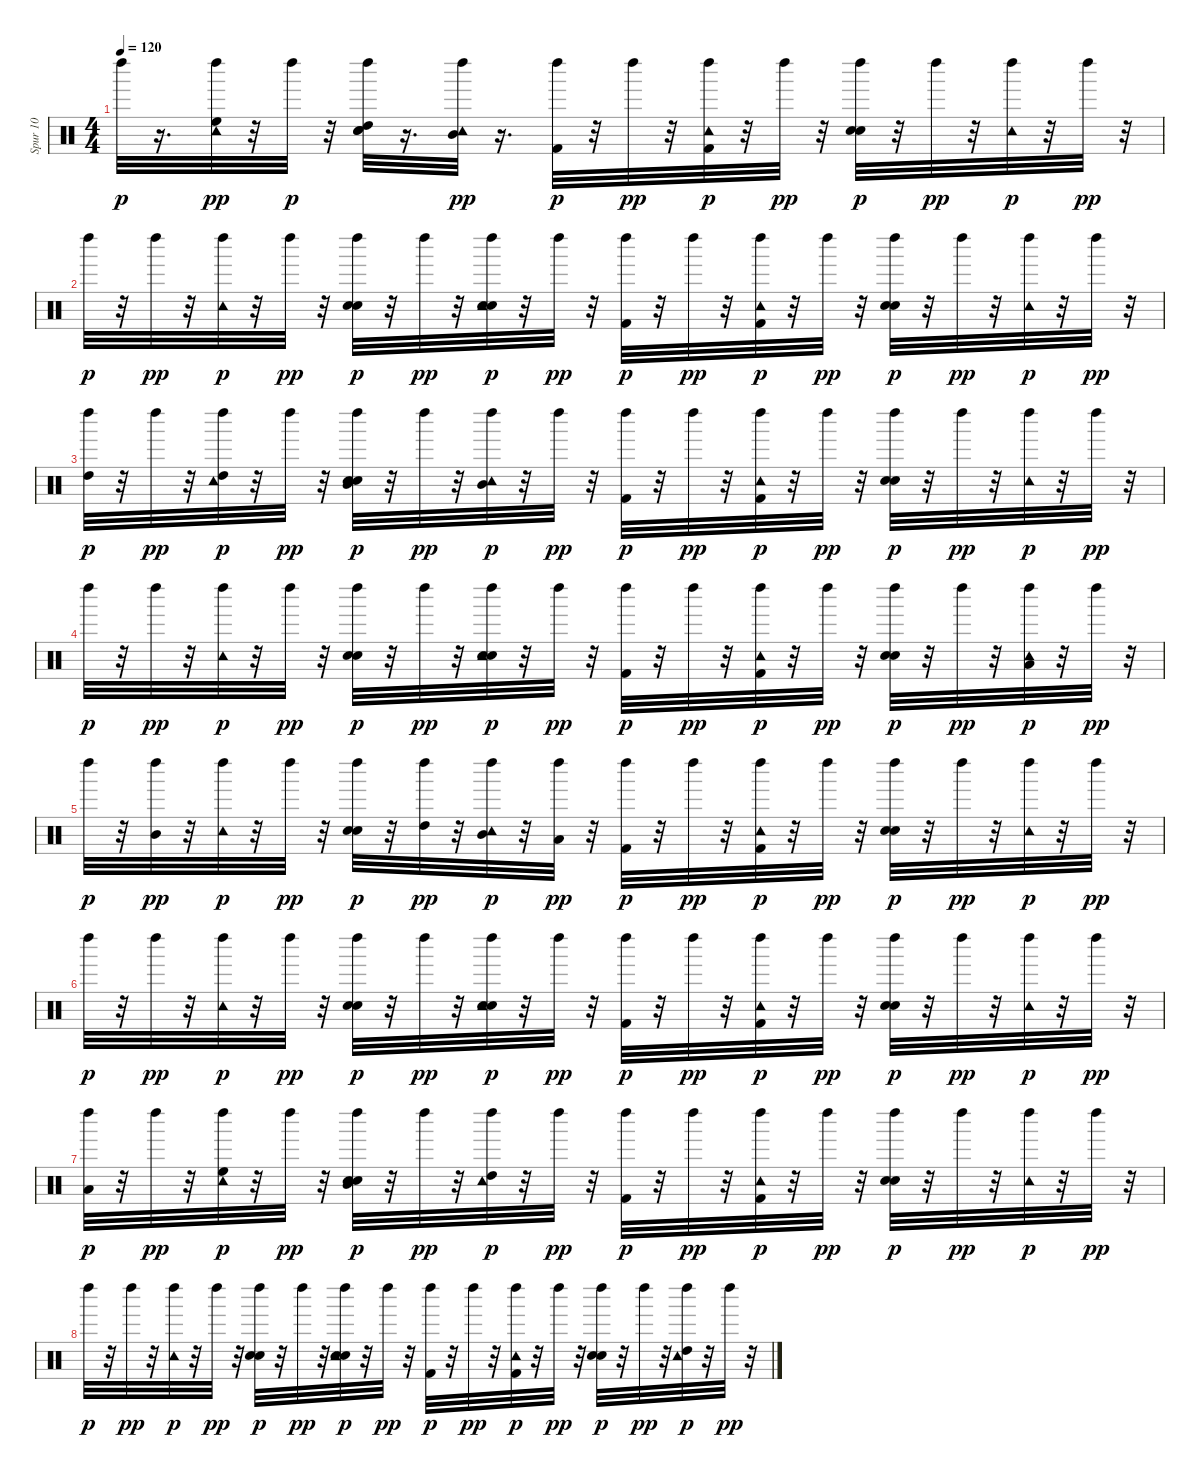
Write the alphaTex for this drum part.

\track ("Spur 10" "Spur 10") {instrument percussion}
\staff {score}
\articulation defaults
\ts (4 4)
\tempo 120
\clef neutral
\ks c "Left Maraca (hit)".32{dy p}
r.16{d} ("High Floor Tom (hit)" "Tambourine (hit)" "Left Maraca (hit)").32{dy pp} r.32 "Left Maraca (hit)".32{dy p} r.32 ("Hand Clap (hit)" "Electric Snare (hit)" "High Tom (hit)" "Left Maraca (hit)").32 r.16{d} ("Mid Tom (hit)" "Tambourine (hit)" "Left Maraca (hit)").32{dy pp} r.16{d} ("Kick (hit) 2" "Left Maraca (hit)").32{dy p} r.32 "Left Maraca (hit)".32{dy pp} r.32 ("Kick (hit) 2" "Tambourine (hit)" "Left Maraca (hit)").32{dy p} r.32 "Left Maraca (hit)".32{dy pp} r.32 ("Hand Clap (hit)" "Electric Snare (hit)" "Left Maraca (hit)").32{dy p} r.32 "Left Maraca (hit)".32{dy pp} r.32 ("Tambourine (hit)" "Left Maraca (hit)").32{dy p} r.32 "Left Maraca (hit)".32{dy pp} r.32 |
"Left Maraca (hit)".32{dy p} r.32 "Left Maraca (hit)".32{dy pp} r.32 ("Tambourine (hit)" "Left Maraca (hit)").32{dy p} r.32 "Left Maraca (hit)".32{dy pp} r.32 ("Hand Clap (hit)" "Electric Snare (hit)" "Left Maraca (hit)").32{dy p} r.32 "Left Maraca (hit)".32{dy pp} r.32 ("Hand Clap (hit)" "Electric Snare (hit)" "Tambourine (hit)" "Left Maraca (hit)").32{dy p} r.32 "Left Maraca (hit)".32{dy pp} r.32 ("Kick (hit) 2" "Left Maraca (hit)").32{dy p} r.32 "Left Maraca (hit)".32{dy pp} r.32 ("Kick (hit) 2" "Tambourine (hit)" "Left Maraca (hit)").32{dy p} r.32 "Left Maraca (hit)".32{dy pp} r.32 ("Hand Clap (hit)" "Electric Snare (hit)" "Left Maraca (hit)").32{dy p} r.32 "Left Maraca (hit)".32{dy pp} r.32 ("Tambourine (hit)" "Left Maraca (hit)").32{dy p} r.32 "Left Maraca (hit)".32{dy pp} r.32 |
("High Tom (hit)" "Left Maraca (hit)").32{dy p} r.32 "Left Maraca (hit)".32{dy pp} r.32 ("High Tom (hit)" "Tambourine (hit)" "Left Maraca (hit)").32{dy p} r.32 "Left Maraca (hit)".32{dy pp} r.32 ("Hand Clap (hit)" "Electric Snare (hit)" "Mid Tom (hit)" "Left Maraca (hit)").32{dy p} r.32 "Left Maraca (hit)".32{dy pp} r.32 ("Mid Tom (hit)" "Tambourine (hit)" "Left Maraca (hit)").32{dy p} r.32 "Left Maraca (hit)".32{dy pp} r.32 ("Kick (hit) 2" "Left Maraca (hit)").32{dy p} r.32 "Left Maraca (hit)".32{dy pp} r.32 ("Kick (hit) 2" "Tambourine (hit)" "Left Maraca (hit)").32{dy p} r.32 "Left Maraca (hit)".32{dy pp} r.32 ("Hand Clap (hit)" "Electric Snare (hit)" "Left Maraca (hit)").32{dy p} r.32 "Left Maraca (hit)".32{dy pp} r.32 ("Tambourine (hit)" "Left Maraca (hit)").32{dy p} r.32 "Left Maraca (hit)".32{dy pp} r.32 |
"Left Maraca (hit)".32{dy p} r.32 "Left Maraca (hit)".32{dy pp} r.32 ("Tambourine (hit)" "Left Maraca (hit)").32{dy p} r.32 "Left Maraca (hit)".32{dy pp} r.32 ("Hand Clap (hit)" "Electric Snare (hit)" "Left Maraca (hit)").32{dy p} r.32 "Left Maraca (hit)".32{dy pp} r.32 ("Hand Clap (hit)" "Electric Snare (hit)" "Tambourine (hit)" "Left Maraca (hit)").32{dy p} r.32 "Left Maraca (hit)".32{dy pp} r.32 ("Kick (hit) 2" "Left Maraca (hit)").32{dy p} r.32 "Left Maraca (hit)".32{dy pp} r.32 ("Kick (hit) 2" "Tambourine (hit)" "Left Maraca (hit)").32{dy p} r.32 "Left Maraca (hit)".32{dy pp} r.32 ("Hand Clap (hit)" "Electric Snare (hit)" "Left Maraca (hit)").32{dy p} r.32 "Left Maraca (hit)".32{dy pp} r.32 ("Low Tom (hit)" "Tambourine (hit)" "Left Maraca (hit)").32{dy p} r.32 "Left Maraca (hit)".32{dy pp} r.32 |
"Left Maraca (hit)".32{dy p} r.32 ("Mid Tom (hit)" "Left Maraca (hit)").32{dy pp} r.32 ("Tambourine (hit)" "Left Maraca (hit)").32{dy p} r.32 "Left Maraca (hit)".32{dy pp} r.32 ("Hand Clap (hit)" "Electric Snare (hit)" "Left Maraca (hit)").32{dy p} r.32 ("High Tom (hit)" "Left Maraca (hit)").32{dy pp} r.32 ("Mid Tom (hit)" "Tambourine (hit)" "Left Maraca (hit)").32{dy p} r.32 ("Low Tom (hit)" "Left Maraca (hit)").32{dy pp} r.32 ("Kick (hit) 2" "Left Maraca (hit)").32{dy p} r.32 "Left Maraca (hit)".32{dy pp} r.32 ("Kick (hit) 2" "Tambourine (hit)" "Left Maraca (hit)").32{dy p} r.32 "Left Maraca (hit)".32{dy pp} r.32 ("Hand Clap (hit)" "Electric Snare (hit)" "Left Maraca (hit)").32{dy p} r.32 "Left Maraca (hit)".32{dy pp} r.32 ("Tambourine (hit)" "Left Maraca (hit)").32{dy p} r.32 "Left Maraca (hit)".32{dy pp} r.32 |
"Left Maraca (hit)".32{dy p} r.32 "Left Maraca (hit)".32{dy pp} r.32 ("Tambourine (hit)" "Left Maraca (hit)").32{dy p} r.32 "Left Maraca (hit)".32{dy pp} r.32 ("Hand Clap (hit)" "Electric Snare (hit)" "Left Maraca (hit)").32{dy p} r.32 "Left Maraca (hit)".32{dy pp} r.32 ("Hand Clap (hit)" "Electric Snare (hit)" "Tambourine (hit)" "Left Maraca (hit)").32{dy p} r.32 "Left Maraca (hit)".32{dy pp} r.32 ("Kick (hit) 2" "Left Maraca (hit)").32{dy p} r.32 "Left Maraca (hit)".32{dy pp} r.32 ("Kick (hit) 2" "Tambourine (hit)" "Left Maraca (hit)").32{dy p} r.32 "Left Maraca (hit)".32{dy pp} r.32 ("Hand Clap (hit)" "Electric Snare (hit)" "Left Maraca (hit)").32{dy p} r.32 "Left Maraca (hit)".32{dy pp} r.32 ("Tambourine (hit)" "Left Maraca (hit)").32{dy p} r.32 "Left Maraca (hit)".32{dy pp} r.32 |
("Low Tom (hit)" "Left Maraca (hit)").32{dy p} r.32 "Left Maraca (hit)".32{dy pp} r.32 ("High Floor Tom (hit)" "Tambourine (hit)" "Left Maraca (hit)").32{dy p} r.32 "Left Maraca (hit)".32{dy pp} r.32 ("Hand Clap (hit)" "Electric Snare (hit)" "Mid Tom (hit)" "Left Maraca (hit)").32{dy p} r.32 "Left Maraca (hit)".32{dy pp} r.32 ("High Tom (hit)" "Tambourine (hit)" "Left Maraca (hit)").32{dy p} r.32 "Left Maraca (hit)".32{dy pp} r.32 ("Kick (hit) 2" "Left Maraca (hit)").32{dy p} r.32 "Left Maraca (hit)".32{dy pp} r.32 ("Kick (hit) 2" "Tambourine (hit)" "Left Maraca (hit)").32{dy p} r.32 "Left Maraca (hit)".32{dy pp} r.32 ("Hand Clap (hit)" "Electric Snare (hit)" "Left Maraca (hit)").32{dy p} r.32 "Left Maraca (hit)".32{dy pp} r.32 ("Tambourine (hit)" "Left Maraca (hit)").32{dy p} r.32 "Left Maraca (hit)".32{dy pp} r.32 |
"Left Maraca (hit)".32{dy p} r.32 "Left Maraca (hit)".32{dy pp} r.32 ("Tambourine (hit)" "Left Maraca (hit)").32{dy p} r.32 "Left Maraca (hit)".32{dy pp} r.32 ("Hand Clap (hit)" "Electric Snare (hit)" "Left Maraca (hit)").32{dy p} r.32 "Left Maraca (hit)".32{dy pp} r.32 ("Hand Clap (hit)" "Electric Snare (hit)" "Tambourine (hit)" "Left Maraca (hit)").32{dy p} r.32 "Left Maraca (hit)".32{dy pp} r.32 ("Kick (hit) 2" "Left Maraca (hit)").32{dy p} r.32 "Left Maraca (hit)".32{dy pp} r.32 ("Kick (hit) 2" "Tambourine (hit)" "Left Maraca (hit)").32{dy p} r.32 "Left Maraca (hit)".32{dy pp} r.32 ("Hand Clap (hit)" "Electric Snare (hit)" "Left Maraca (hit)").32{dy p} r.32 "Left Maraca (hit)".32{dy pp} r.32 ("High Tom (hit)" "Tambourine (hit)" "Left Maraca (hit)").32{dy p} r.32 "Left Maraca (hit)".32{dy pp} r.32
